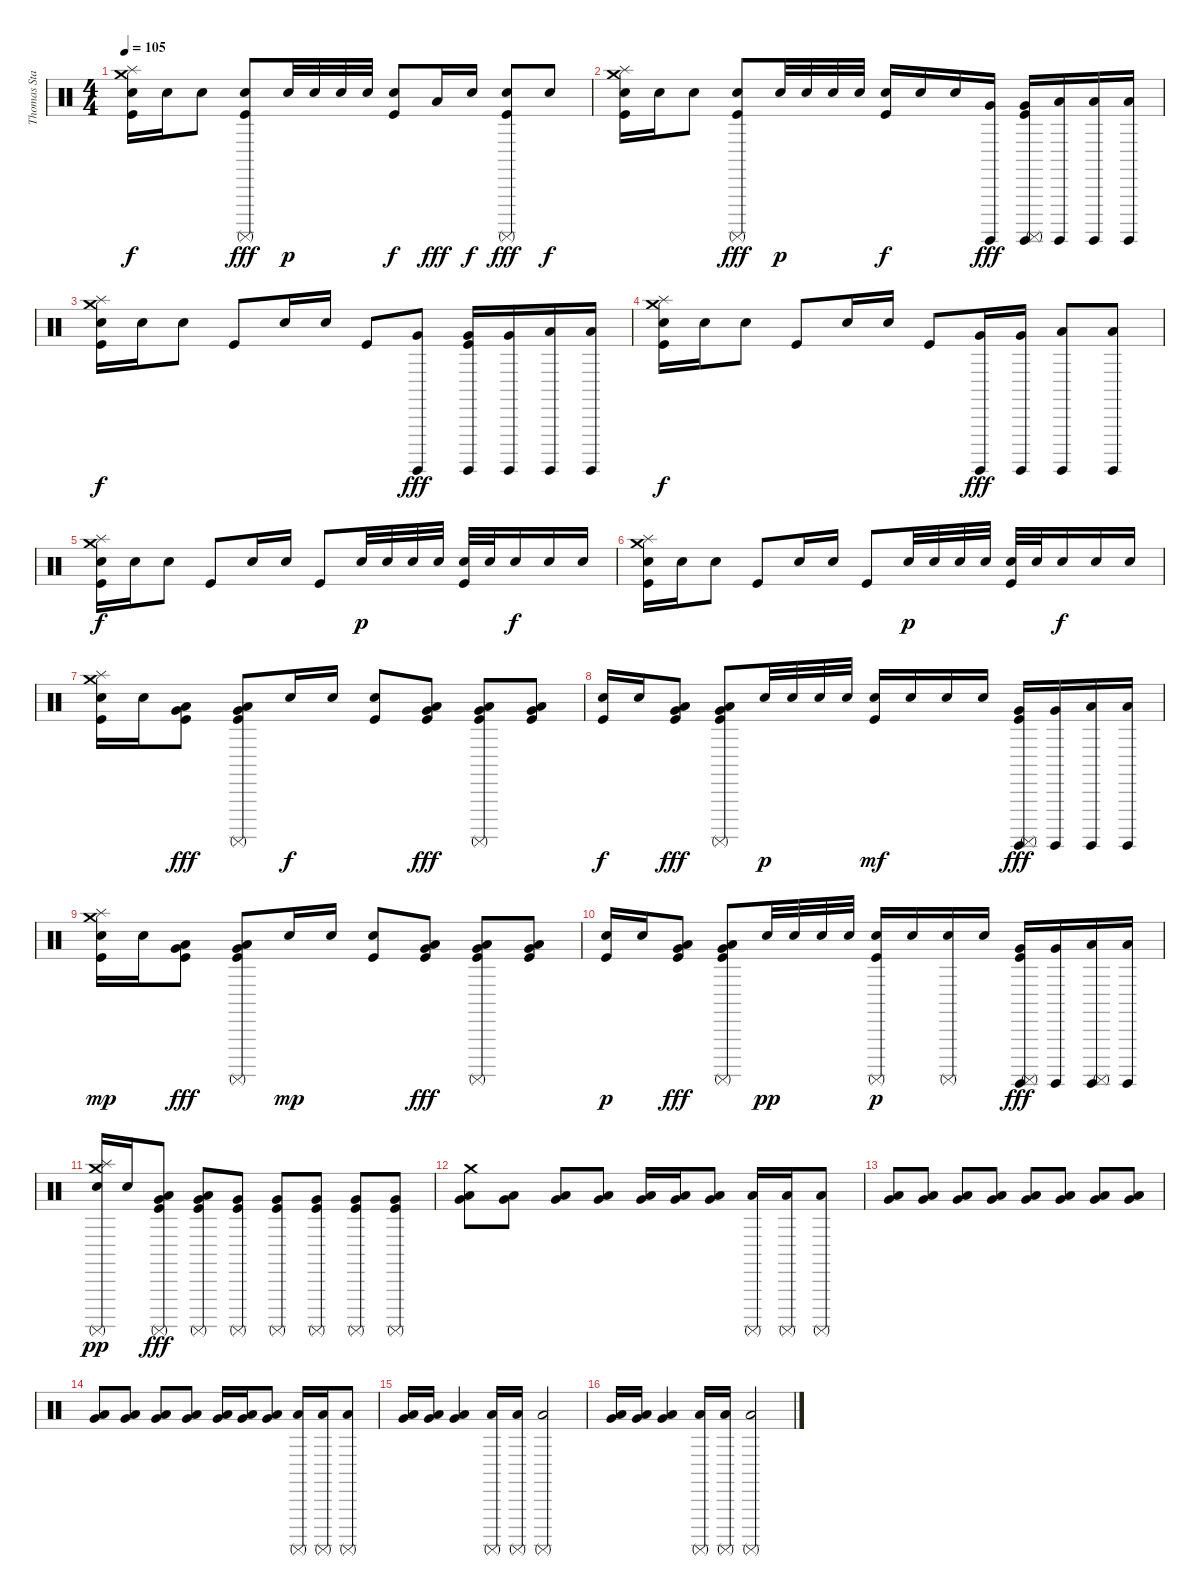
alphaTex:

\track ("Thomas Stauch" "Thomas Sta") {instrument percussion}
\staff {score}
\articulation defaults
\ts (4 4)
\tempo 105
\clef neutral
\ks c
("Crash medium (hit)" "Splash (hit)" "Electric Snare (hit)" "Kick (hit)").16{dy f} "Electric Snare (hit)".16 "Electric Snare (hit)".8 ("Surdo (mute)" "Electric Snare (hit)" "Kick (hit)").8{dy fff} "Electric Snare (hit)".32{dy p} "Electric Snare (hit)".32 "Electric Snare (hit)".32 "Electric Snare (hit)".32 ("Electric Snare (hit)" "Kick (hit)").8{dy f} "Low Floor Tom (hit)".16{dy fff} "Electric Snare (hit)".16{dy f} ("Surdo (mute)" "Electric Snare (hit)" "Kick (hit)").8{dy fff} "Electric Snare (hit)".8{dy f} |
("Crash medium (hit)" "Splash (hit)" "Electric Snare (hit)" "Kick (hit)").16 "Electric Snare (hit)".16 "Electric Snare (hit)".8 ("Surdo (mute)" "Electric Snare (hit)" "Kick (hit)").8{dy fff} "Electric Snare (hit)".32{dy p} "Electric Snare (hit)".32 "Electric Snare (hit)".32 "Electric Snare (hit)".32 ("Electric Snare (hit)" "Kick (hit)").16{dy f} "Electric Snare (hit)".16 "Electric Snare (hit)".16 ("Surdo (hit)" "Very Low Tom (hit)").16{dy fff} ("Surdo (mute)" "Surdo (hit)" "Very Low Tom (hit)" "Kick (hit)").16 ("Surdo (hit)" "Low Floor Tom (hit)").16 ("Surdo (hit)" "Low Floor Tom (hit)").16 ("Surdo (hit)" "Low Floor Tom (hit)").16 |
("Crash medium (hit)" "Splash (hit)" "Electric Snare (hit)" "Kick (hit)").16{dy f} "Electric Snare (hit)".16 "Electric Snare (hit)".8 "Kick (hit)".8 "Electric Snare (hit)".16 "Electric Snare (hit)".16 "Kick (hit)".8 ("Surdo (hit)" "Very Low Tom (hit)").8{dy fff} ("Surdo (hit)" "Very Low Tom (hit)" "Kick (hit)").16 ("Surdo (hit)" "Very Low Tom (hit)").16 ("Surdo (hit)" "Low Floor Tom (hit)").16 ("Surdo (hit)" "Low Floor Tom (hit)").16 |
("Crash medium (hit)" "Splash (hit)" "Electric Snare (hit)" "Kick (hit)").16{dy f} "Electric Snare (hit)".16 "Electric Snare (hit)".8 "Kick (hit)".8 "Electric Snare (hit)".16 "Electric Snare (hit)".16 "Kick (hit)".8 ("Surdo (hit)" "Very Low Tom (hit)").16{dy fff} ("Surdo (hit)" "Very Low Tom (hit)").16 ("Surdo (hit)" "Low Floor Tom (hit)").8 ("Surdo (hit)" "Low Floor Tom (hit)").8 |
("Crash medium (hit)" "Splash (hit)" "Electric Snare (hit)" "Kick (hit)").16{dy f} "Electric Snare (hit)".16 "Electric Snare (hit)".8 "Kick (hit)".8 "Electric Snare (hit)".16 "Electric Snare (hit)".16 "Kick (hit)".8 "Electric Snare (hit)".32{dy p} "Electric Snare (hit)".32 "Electric Snare (hit)".32 "Electric Snare (hit)".32 ("Electric Snare (hit)" "Kick (hit)").32 "Electric Snare (hit)".32 "Electric Snare (hit)".16{dy f} "Electric Snare (hit)".16 "Electric Snare (hit)".16 |
("Crash medium (hit)" "Splash (hit)" "Electric Snare (hit)" "Kick (hit)").16 "Electric Snare (hit)".16 "Electric Snare (hit)".8 "Kick (hit)".8 "Electric Snare (hit)".16 "Electric Snare (hit)".16 "Kick (hit)".8 "Electric Snare (hit)".32{dy p} "Electric Snare (hit)".32 "Electric Snare (hit)".32 "Electric Snare (hit)".32 ("Electric Snare (hit)" "Kick (hit)").32 "Electric Snare (hit)".32 "Electric Snare (hit)".16{dy f} "Electric Snare (hit)".16 "Electric Snare (hit)".16 |
("Crash medium (hit)" "Splash (hit)" "Electric Snare (hit)" "Kick (hit)").16 "Electric Snare (hit)".16 ("Very Low Tom (hit)" "Low Floor Tom (hit)" "Kick (hit)").8{dy fff} ("Surdo (mute)" "Very Low Tom (hit)" "Low Floor Tom (hit)" "Kick (hit)").8 "Electric Snare (hit)".16{dy f} "Electric Snare (hit)".16 ("Electric Snare (hit)" "Kick (hit)").8 ("Very Low Tom (hit)" "Low Floor Tom (hit)" "Kick (hit)").8{dy fff} ("Surdo (mute)" "Very Low Tom (hit)" "Low Floor Tom (hit)" "Kick (hit)").8 ("Very Low Tom (hit)" "Low Floor Tom (hit)" "Kick (hit)").8 |
("Electric Snare (hit)" "Kick (hit)").16{dy f} "Electric Snare (hit)".16 ("Very Low Tom (hit)" "Low Floor Tom (hit)" "Kick (hit)").8{dy fff} ("Surdo (mute)" "Very Low Tom (hit)" "Low Floor Tom (hit)" "Kick (hit)").8 "Electric Snare (hit)".32{dy p} "Electric Snare (hit)".32 "Electric Snare (hit)".32 "Electric Snare (hit)".32 ("Electric Snare (hit)" "Kick (hit)").16{dy mf} "Electric Snare (hit)".16 "Electric Snare (hit)".16 "Electric Snare (hit)".16 ("Surdo (mute)" "Surdo (hit)" "Very Low Tom (hit)" "Kick (hit)").16{dy fff} ("Surdo (hit)" "Very Low Tom (hit)").16 ("Surdo (hit)" "Low Floor Tom (hit)").16 ("Surdo (hit)" "Low Floor Tom (hit)").16 |
("Crash medium (hit)" "Splash (hit)" "Electric Snare (hit)" "Kick (hit)").16{dy mp} "Electric Snare (hit)".16 ("Very Low Tom (hit)" "Low Floor Tom (hit)" "Kick (hit)").8{dy fff} ("Surdo (mute)" "Very Low Tom (hit)" "Low Floor Tom (hit)" "Kick (hit)").8 "Electric Snare (hit)".16{dy mp} "Electric Snare (hit)".16 ("Electric Snare (hit)" "Kick (hit)").8 ("Very Low Tom (hit)" "Low Floor Tom (hit)" "Kick (hit)").8{dy fff} ("Surdo (mute)" "Very Low Tom (hit)" "Low Floor Tom (hit)" "Kick (hit)").8 ("Very Low Tom (hit)" "Low Floor Tom (hit)" "Kick (hit)").8 |
("Electric Snare (hit)" "Kick (hit)").16{dy p} "Electric Snare (hit)".16 ("Very Low Tom (hit)" "Low Floor Tom (hit)" "Kick (hit)").8{dy fff} ("Surdo (mute)" "Very Low Tom (hit)" "Low Floor Tom (hit)" "Kick (hit)").8 "Electric Snare (hit)".32{dy pp} "Electric Snare (hit)".32 "Electric Snare (hit)".32 "Electric Snare (hit)".32 ("Surdo (mute)" "Electric Snare (hit)" "Kick (hit)").16{dy p} "Electric Snare (hit)".16 ("Surdo (mute)" "Electric Snare (hit)").16 "Electric Snare (hit)".16 ("Surdo (mute)" "Surdo (hit)" "Very Low Tom (hit)" "Kick (hit)").16{dy fff} ("Surdo (hit)" "Very Low Tom (hit)").16 ("Surdo (mute)" "Surdo (hit)" "Low Floor Tom (hit)").16 ("Surdo (hit)" "Low Floor Tom (hit)").16 |
("Crash medium (hit)" "Splash (hit)" "Surdo (mute)" "Electric Snare (hit)").16{dy pp} "Electric Snare (hit)".16 ("Surdo (mute)" "Very Low Tom (hit)" "Low Floor Tom (hit)" "Kick (hit)").8{dy fff} ("Surdo (mute)" "Very Low Tom (hit)" "Low Floor Tom (hit)" "Kick (hit)").8 ("Surdo (mute)" "Very Low Tom (hit)" "Kick (hit)").8 ("Surdo (mute)" "Very Low Tom (hit)" "Kick (hit)").8 ("Surdo (mute)" "Very Low Tom (hit)" "Kick (hit)").8 ("Surdo (mute)" "Very Low Tom (hit)" "Kick (hit)").8 ("Surdo (mute)" "Very Low Tom (hit)" "Kick (hit)").8 |
("Crash medium (hit)" "Very Low Tom (hit)" "Low Floor Tom (hit)").8 ("Very Low Tom (hit)" "Low Floor Tom (hit)").8 ("Very Low Tom (hit)" "Low Floor Tom (hit)").8 ("Very Low Tom (hit)" "Low Floor Tom (hit)").8 ("Very Low Tom (hit)" "Low Floor Tom (hit)").16 ("Very Low Tom (hit)" "Low Floor Tom (hit)").16 ("Very Low Tom (hit)" "Low Floor Tom (hit)").8 ("Surdo (mute)" "Low Floor Tom (hit)").16 ("Surdo (mute)" "Low Floor Tom (hit)").16 ("Surdo (mute)" "Low Floor Tom (hit)").8 |
("Very Low Tom (hit)" "Low Floor Tom (hit)").8 ("Very Low Tom (hit)" "Low Floor Tom (hit)").8 ("Very Low Tom (hit)" "Low Floor Tom (hit)").8 ("Very Low Tom (hit)" "Low Floor Tom (hit)").8 ("Very Low Tom (hit)" "Low Floor Tom (hit)").8 ("Very Low Tom (hit)" "Low Floor Tom (hit)").8 ("Very Low Tom (hit)" "Low Floor Tom (hit)").8 ("Very Low Tom (hit)" "Low Floor Tom (hit)").8 |
("Very Low Tom (hit)" "Low Floor Tom (hit)").8{volume 9} ("Very Low Tom (hit)" "Low Floor Tom (hit)").8 ("Very Low Tom (hit)" "Low Floor Tom (hit)").8 ("Very Low Tom (hit)" "Low Floor Tom (hit)").8 ("Very Low Tom (hit)" "Low Floor Tom (hit)").16 ("Very Low Tom (hit)" "Low Floor Tom (hit)").16 ("Very Low Tom (hit)" "Low Floor Tom (hit)").8 ("Surdo (mute)" "Low Floor Tom (hit)").16 ("Surdo (mute)" "Low Floor Tom (hit)").16 ("Surdo (mute)" "Low Floor Tom (hit)").8 |
("Very Low Tom (hit)" "Low Floor Tom (hit)").16{volume 8} ("Very Low Tom (hit)" "Low Floor Tom (hit)").16 ("Very Low Tom (hit)" "Low Floor Tom (hit)").4 ("Surdo (mute)" "Low Floor Tom (hit)").16 ("Surdo (mute)" "Low Floor Tom (hit)").16 ("Surdo (mute)" "Low Floor Tom (hit)").2 |
("Very Low Tom (hit)" "Low Floor Tom (hit)").16{volume 7} ("Very Low Tom (hit)" "Low Floor Tom (hit)").16 ("Very Low Tom (hit)" "Low Floor Tom (hit)").4 ("Surdo (mute)" "Low Floor Tom (hit)").16 ("Surdo (mute)" "Low Floor Tom (hit)").16 ("Surdo (mute)" "Low Floor Tom (hit)").2
